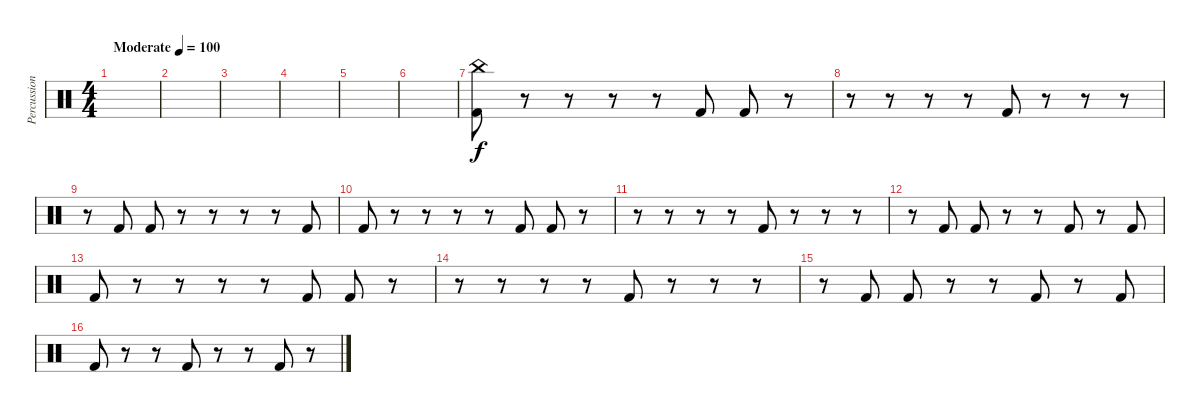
\track ("Percussion" "Percussion") {instrument percussion}
\staff {score}
\articulation defaults
\ts (4 4)
\tempo (100 "Moderate")
\clef neutral
\ks c
|
|
|
|
|
|
("China (hit)" "Kick (hit) 2").8 r.8 r.8 r.8 r.8 "Kick (hit) 2".8{dy f} "Kick (hit) 2".8 r.8 |
r.8 r.8 r.8 r.8 "Kick (hit) 2".8 r.8 r.8 r.8 |
r.8 "Kick (hit) 2".8 "Kick (hit) 2".8 r.8 r.8 r.8 r.8 "Kick (hit) 2".8 |
"Kick (hit) 2".8 r.8 r.8 r.8 r.8 "Kick (hit) 2".8 "Kick (hit) 2".8 r.8 |
r.8 r.8 r.8 r.8 "Kick (hit) 2".8 r.8 r.8 r.8 |
r.8 "Kick (hit) 2".8 "Kick (hit) 2".8 r.8 r.8 "Kick (hit) 2".8 r.8 "Kick (hit) 2".8 |
"Kick (hit) 2".8 r.8 r.8 r.8 r.8 "Kick (hit) 2".8 "Kick (hit) 2".8 r.8 |
r.8 r.8 r.8 r.8 "Kick (hit) 2".8 r.8 r.8 r.8 |
r.8 "Kick (hit) 2".8 "Kick (hit) 2".8 r.8 r.8 "Kick (hit) 2".8 r.8 "Kick (hit) 2".8 |
"Kick (hit) 2".8 r.8 r.8 "Kick (hit) 2".8 r.8 r.8 "Kick (hit) 2".8 r.8
